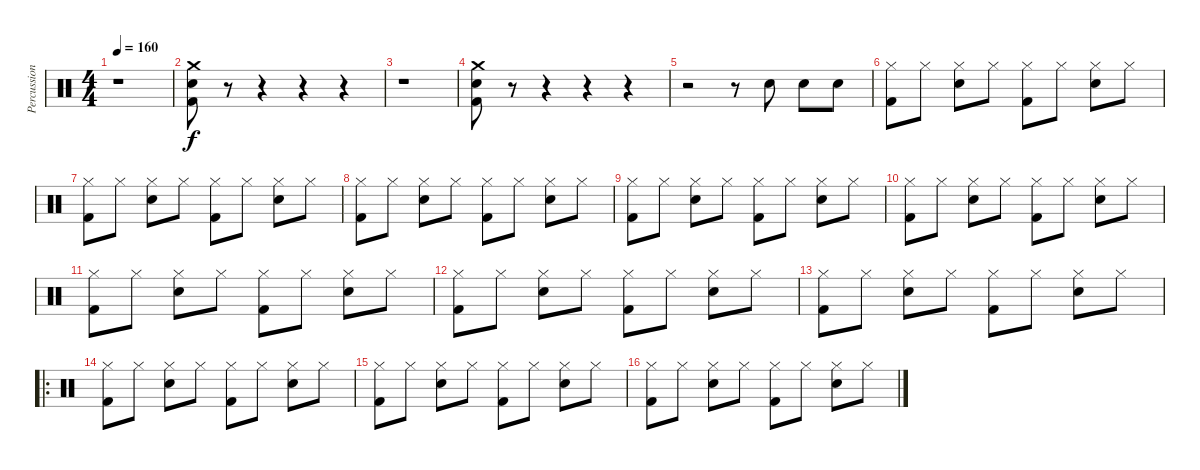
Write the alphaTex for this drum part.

\track ("Percussion" "Percussion") {instrument percussion}
\staff {score}
\articulation defaults
\ts (4 4)
\tempo 160
\clef neutral
\ks c
r.1{dy f} |
("Crash medium (hit)" "Electric Snare (hit)" "Kick (hit) 2").8 r.8 r.4 r.4 r.4 |
r.1 |
("Crash medium (hit)" "Electric Snare (hit)" "Kick (hit) 2").8 r.8 r.4 r.4 r.4 |
r.2 r.8 "Electric Snare (hit)".8 "Electric Snare (hit)".8 "Electric Snare (hit)".8 |
("Hi-Hat (closed)" "Kick (hit) 2").8 "Hi-Hat (closed)".8 ("Hi-Hat (closed)" "Electric Snare (hit)").8 "Hi-Hat (closed)".8 ("Hi-Hat (closed)" "Kick (hit) 2").8 "Hi-Hat (closed)".8 ("Hi-Hat (closed)" "Electric Snare (hit)").8 "Hi-Hat (closed)".8 |
("Hi-Hat (closed)" "Kick (hit) 2").8 "Hi-Hat (closed)".8 ("Hi-Hat (closed)" "Electric Snare (hit)").8 "Hi-Hat (closed)".8 ("Hi-Hat (closed)" "Kick (hit) 2").8 "Hi-Hat (closed)".8 ("Hi-Hat (closed)" "Electric Snare (hit)").8 "Hi-Hat (closed)".8 |
("Hi-Hat (closed)" "Kick (hit) 2").8 "Hi-Hat (closed)".8 ("Hi-Hat (closed)" "Electric Snare (hit)").8 "Hi-Hat (closed)".8 ("Hi-Hat (closed)" "Kick (hit) 2").8 "Hi-Hat (closed)".8 ("Hi-Hat (closed)" "Electric Snare (hit)").8 "Hi-Hat (closed)".8 |
("Hi-Hat (closed)" "Kick (hit) 2").8 "Hi-Hat (closed)".8 ("Hi-Hat (closed)" "Electric Snare (hit)").8 "Hi-Hat (closed)".8 ("Hi-Hat (closed)" "Kick (hit) 2").8 "Hi-Hat (closed)".8 ("Hi-Hat (closed)" "Electric Snare (hit)").8 "Hi-Hat (closed)".8 |
("Hi-Hat (closed)" "Kick (hit) 2").8 "Hi-Hat (closed)".8 ("Hi-Hat (closed)" "Electric Snare (hit)").8 "Hi-Hat (closed)".8 ("Hi-Hat (closed)" "Kick (hit) 2").8 "Hi-Hat (closed)".8 ("Hi-Hat (closed)" "Electric Snare (hit)").8 "Hi-Hat (closed)".8 |
("Hi-Hat (closed)" "Kick (hit) 2").8 "Hi-Hat (closed)".8 ("Hi-Hat (closed)" "Electric Snare (hit)").8 "Hi-Hat (closed)".8 ("Hi-Hat (closed)" "Kick (hit) 2").8 "Hi-Hat (closed)".8 ("Hi-Hat (closed)" "Electric Snare (hit)").8 "Hi-Hat (closed)".8 |
("Hi-Hat (closed)" "Kick (hit) 2").8 "Hi-Hat (closed)".8 ("Hi-Hat (closed)" "Electric Snare (hit)").8 "Hi-Hat (closed)".8 ("Hi-Hat (closed)" "Kick (hit) 2").8 "Hi-Hat (closed)".8 ("Hi-Hat (closed)" "Electric Snare (hit)").8 "Hi-Hat (closed)".8 |
("Hi-Hat (closed)" "Kick (hit) 2").8 "Hi-Hat (closed)".8 ("Hi-Hat (closed)" "Electric Snare (hit)").8 "Hi-Hat (closed)".8 ("Hi-Hat (closed)" "Kick (hit) 2").8 "Hi-Hat (closed)".8 ("Hi-Hat (closed)" "Electric Snare (hit)").8 "Hi-Hat (closed)".8 |
\ro
("Hi-Hat (closed)" "Kick (hit) 2").8 "Hi-Hat (closed)".8 ("Hi-Hat (closed)" "Electric Snare (hit)").8 "Hi-Hat (closed)".8 ("Hi-Hat (closed)" "Kick (hit) 2").8 "Hi-Hat (closed)".8 ("Hi-Hat (closed)" "Electric Snare (hit)").8 "Hi-Hat (closed)".8 |
("Hi-Hat (closed)" "Kick (hit) 2").8 "Hi-Hat (closed)".8 ("Hi-Hat (closed)" "Electric Snare (hit)").8 "Hi-Hat (closed)".8 ("Hi-Hat (closed)" "Kick (hit) 2").8 "Hi-Hat (closed)".8 ("Hi-Hat (closed)" "Electric Snare (hit)").8 "Hi-Hat (closed)".8 |
("Hi-Hat (closed)" "Kick (hit) 2").8 "Hi-Hat (closed)".8 ("Hi-Hat (closed)" "Electric Snare (hit)").8 "Hi-Hat (closed)".8 ("Hi-Hat (closed)" "Kick (hit) 2").8 "Hi-Hat (closed)".8 ("Hi-Hat (closed)" "Electric Snare (hit)").8 "Hi-Hat (closed)".8
